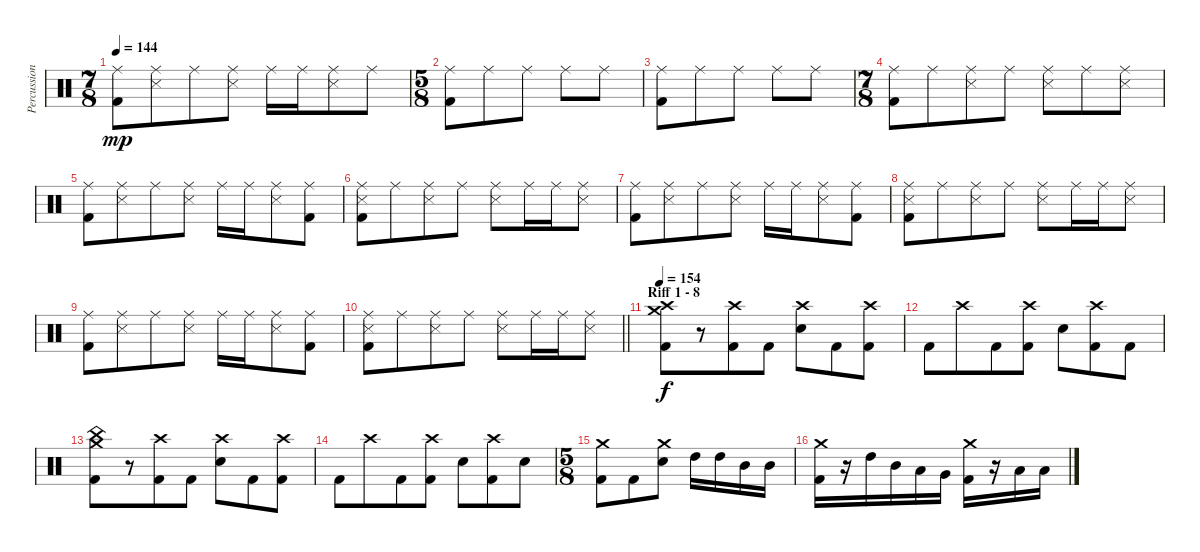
\track ("Percussions" "Percussion") {instrument percussion}
\staff {score}
\articulation defaults
\ts (7 8)
\tempo 144
\clef neutral
\ks c
("Ride (middle)" "Kick (hit) 2").8{dy mp} ("Ride (middle)" "Metronome (hit)").8 "Ride (middle)".8 ("Ride (middle)" "Metronome (hit)").8 "Ride (middle)".16 "Ride (middle)".16 ("Ride (middle)" "Metronome (hit)").8 "Ride (middle)".8 |
\ts (5 8)
("Ride (middle)" "Kick (hit) 2").8 "Ride (middle)".8 "Ride (middle)".8 "Ride (middle)".8 "Ride (middle)".8 |
("Ride (middle)" "Kick (hit) 2").8 "Ride (middle)".8 "Ride (middle)".8 "Ride (middle)".8 "Ride (middle)".8 |
\ts (7 8)
("Ride (middle)" "Kick (hit) 2").8 "Ride (middle)".8 ("Ride (middle)" "Metronome (hit)").8 "Ride (middle)".8 ("Ride (middle)" "Metronome (hit)").8 "Ride (middle)".8 ("Ride (middle)" "Metronome (hit)").8 |
("Ride (middle)" "Kick (hit) 2").8 ("Ride (middle)" "Metronome (hit)").8 "Ride (middle)".8 ("Ride (middle)" "Metronome (hit)").8 "Ride (middle)".16 "Ride (middle)".16 ("Ride (middle)" "Metronome (hit)").8 ("Ride (middle)" "Kick (hit) 2").8 |
("Ride (middle)" "Metronome (hit)" "Kick (hit) 2").8 "Ride (middle)".8 ("Ride (middle)" "Metronome (hit)").8 "Ride (middle)".8 ("Ride (middle)" "Metronome (hit)").8 "Ride (middle)".16 "Ride (middle)".16 ("Ride (middle)" "Metronome (hit)").8 |
("Ride (middle)" "Kick (hit) 2").8 ("Ride (middle)" "Metronome (hit)").8 "Ride (middle)".8 ("Ride (middle)" "Metronome (hit)").8 "Ride (middle)".16 "Ride (middle)".16 ("Ride (middle)" "Metronome (hit)").8 ("Ride (middle)" "Kick (hit) 2").8 |
("Ride (middle)" "Metronome (hit)" "Kick (hit) 2").8 "Ride (middle)".8 ("Ride (middle)" "Metronome (hit)").8 "Ride (middle)".8 ("Ride (middle)" "Metronome (hit)").8 "Ride (middle)".16 "Ride (middle)".16 ("Ride (middle)" "Metronome (hit)").8 |
("Ride (middle)" "Kick (hit) 2").8 ("Ride (middle)" "Metronome (hit)").8 "Ride (middle)".8 ("Ride (middle)" "Metronome (hit)").8 "Ride (middle)".16 "Ride (middle)".16 ("Ride (middle)" "Metronome (hit)").8 ("Ride (middle)" "Kick (hit) 2").8 |
\barLineRight lightlight
("Ride (middle)" "Metronome (hit)" "Kick (hit) 2").8 "Ride (middle)".8 ("Ride (middle)" "Metronome (hit)").8 "Ride (middle)".8 ("Ride (middle)" "Metronome (hit)").8 "Ride (middle)".16 "Ride (middle)".16 ("Ride (middle)" "Metronome (hit)").8 |
\section ("" "Riff 1 - 8")
\tempo 154
("Crash high (hit)" "Crash medium (hit)" "Kick (hit) 2").8{dy f} r.8 ("Crash high (hit)" "Kick (hit) 2").8 "Kick (hit) 2".8 ("Crash high (hit)" "Electric Snare (hit)").8 "Kick (hit) 2".8 ("Crash high (hit)" "Kick (hit) 2").8 |
"Kick (hit) 2".8 "Crash high (hit)".8 "Kick (hit) 2".8 ("Crash high (hit)" "Kick (hit) 2").8 "Electric Snare (hit)".8 ("Crash high (hit)" "Kick (hit) 2").8 "Kick (hit) 2".8 |
("China (hit)" "Crash medium (hit)" "Kick (hit) 2").8 r.8 ("Crash high (hit)" "Kick (hit) 2").8 "Kick (hit) 2".8 ("Crash high (hit)" "Electric Snare (hit)").8 "Kick (hit) 2".8 ("Crash high (hit)" "Kick (hit) 2").8 |
"Kick (hit) 2".8 "Crash high (hit)".8 "Kick (hit) 2".8 ("Crash high (hit)" "Kick (hit) 2").8 "Electric Snare (hit)".8 ("Crash high (hit)" "Kick (hit) 2").8 "Electric Snare (hit)".8 |
\ts (5 8)
("Crash medium (hit)" "Kick (hit) 2").8 "Kick (hit) 2".8 ("Crash medium (hit)" "Electric Snare (hit)").8 "High Tom (hit)".16 "High Tom (hit)".16 "Mid Tom (hit)".16 "Mid Tom (hit)".16 |
("Crash medium (hit)" "Kick (hit) 2").16 r.16 "High Tom (hit)".16 "Mid Tom (hit)".16 "Low Tom (hit)".16 "Very Low Tom (hit)".16 ("Crash medium (hit)" "Kick (hit) 2").16 r.16 "Low Tom (hit)".16 "Low Tom (hit)".16
